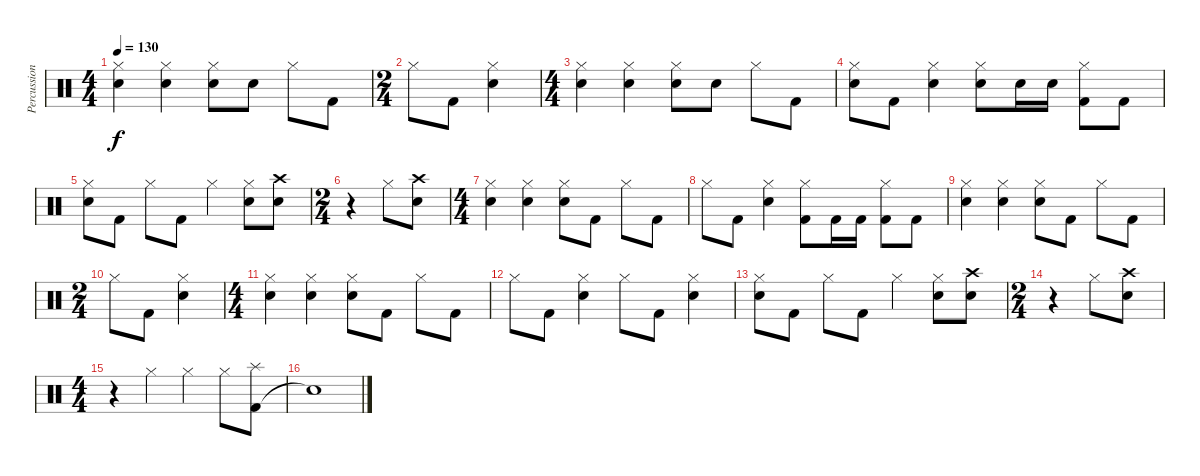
\track ("Percussion" "Percussion") {instrument percussion}
\staff {score}
\articulation defaults
\ts (4 4)
\tempo 130
\clef neutral
\ks c
("Snare (hit) 2" "Hi-Hat (closed)").4{dy f} ("Snare (hit) 2" "Hi-Hat (closed)").4 ("Snare (hit) 2" "Hi-Hat (closed)").8 "Snare (hit) 2".8 "Hi-Hat (closed)".8 "Kick (hit) 2".8 |
\ts (2 4)
"Hi-Hat (closed)".8 "Kick (hit) 2".8 ("Snare (hit) 2" "Hi-Hat (closed)").4 |
\ts (4 4)
("Snare (hit) 2" "Hi-Hat (closed)").4 ("Snare (hit) 2" "Hi-Hat (closed)").4 ("Snare (hit) 2" "Hi-Hat (closed)").8 "Snare (hit) 2".8 "Hi-Hat (closed)".8 "Kick (hit) 2".8 |
("Snare (hit) 2" "Hi-Hat (closed)").8 "Kick (hit) 2".8 ("Snare (hit) 2" "Hi-Hat (closed)").4 ("Snare (hit) 2" "Hi-Hat (closed)").8 "Snare (hit) 2".16 "Snare (hit) 2".16 ("Kick (hit) 2" "Hi-Hat (closed)").8 "Kick (hit) 2".8 |
("Snare (hit) 2" "Hi-Hat (closed)").8 "Kick (hit) 2".8 "Hi-Hat (closed)".8 "Kick (hit) 2".8 "Hi-Hat (closed)".4 ("Snare (hit) 2" "Hi-Hat (closed)").8 ("Snare (hit) 2" "Crash high (hit)").8 |
\ts (2 4)
r.4 "Hi-Hat (closed)".8 ("Snare (hit) 2" "Crash high (hit)").8 |
\ts (4 4)
("Snare (hit) 2" "Hi-Hat (closed)").4 ("Snare (hit) 2" "Hi-Hat (closed)").4 ("Snare (hit) 2" "Hi-Hat (closed)").8 "Kick (hit) 2".8 "Hi-Hat (closed)".8 "Kick (hit) 2".8 |
"Hi-Hat (closed)".8 "Kick (hit) 2".8 ("Snare (hit) 2" "Hi-Hat (closed)").4 ("Kick (hit) 2" "Hi-Hat (closed)").8 "Kick (hit) 2".16 "Kick (hit) 2".16 ("Kick (hit) 2" "Hi-Hat (closed)").8 "Kick (hit) 2".8 |
("Snare (hit) 2" "Hi-Hat (closed)").4 ("Snare (hit) 2" "Hi-Hat (closed)").4 ("Snare (hit) 2" "Hi-Hat (closed)").8 "Kick (hit) 2".8 "Hi-Hat (closed)".8 "Kick (hit) 2".8 |
\ts (2 4)
"Hi-Hat (closed)".8 "Kick (hit) 2".8 ("Snare (hit) 2" "Hi-Hat (closed)").4 |
\ts (4 4)
("Snare (hit) 2" "Hi-Hat (closed)").4 ("Snare (hit) 2" "Hi-Hat (closed)").4 ("Snare (hit) 2" "Hi-Hat (closed)").8 "Kick (hit) 2".8 "Hi-Hat (closed)".8 "Kick (hit) 2".8 |
"Hi-Hat (closed)".8 "Kick (hit) 2".8 ("Snare (hit) 2" "Hi-Hat (closed)").4 "Hi-Hat (closed)".8 "Kick (hit) 2".8 ("Snare (hit) 2" "Hi-Hat (closed)").4 |
("Snare (hit) 2" "Hi-Hat (closed)").8 "Kick (hit) 2".8 "Hi-Hat (closed)".8 "Kick (hit) 2".8 "Hi-Hat (closed)".4 ("Snare (hit) 2" "Hi-Hat (closed)").8 ("Snare (hit) 2" "Crash high (hit)").8 |
\ts (2 4)
r.4 "Hi-Hat (closed)".8 ("Snare (hit) 2" "Crash high (hit)").8 |
\ts (4 4)
r.4 "Hi-Hat (closed)".4 "Hi-Hat (closed)".4 "Hi-Hat (closed)".8 ("Kick (hit) 2" "Splash (hit)").8 |
"Snare (hit)"{t}.1
